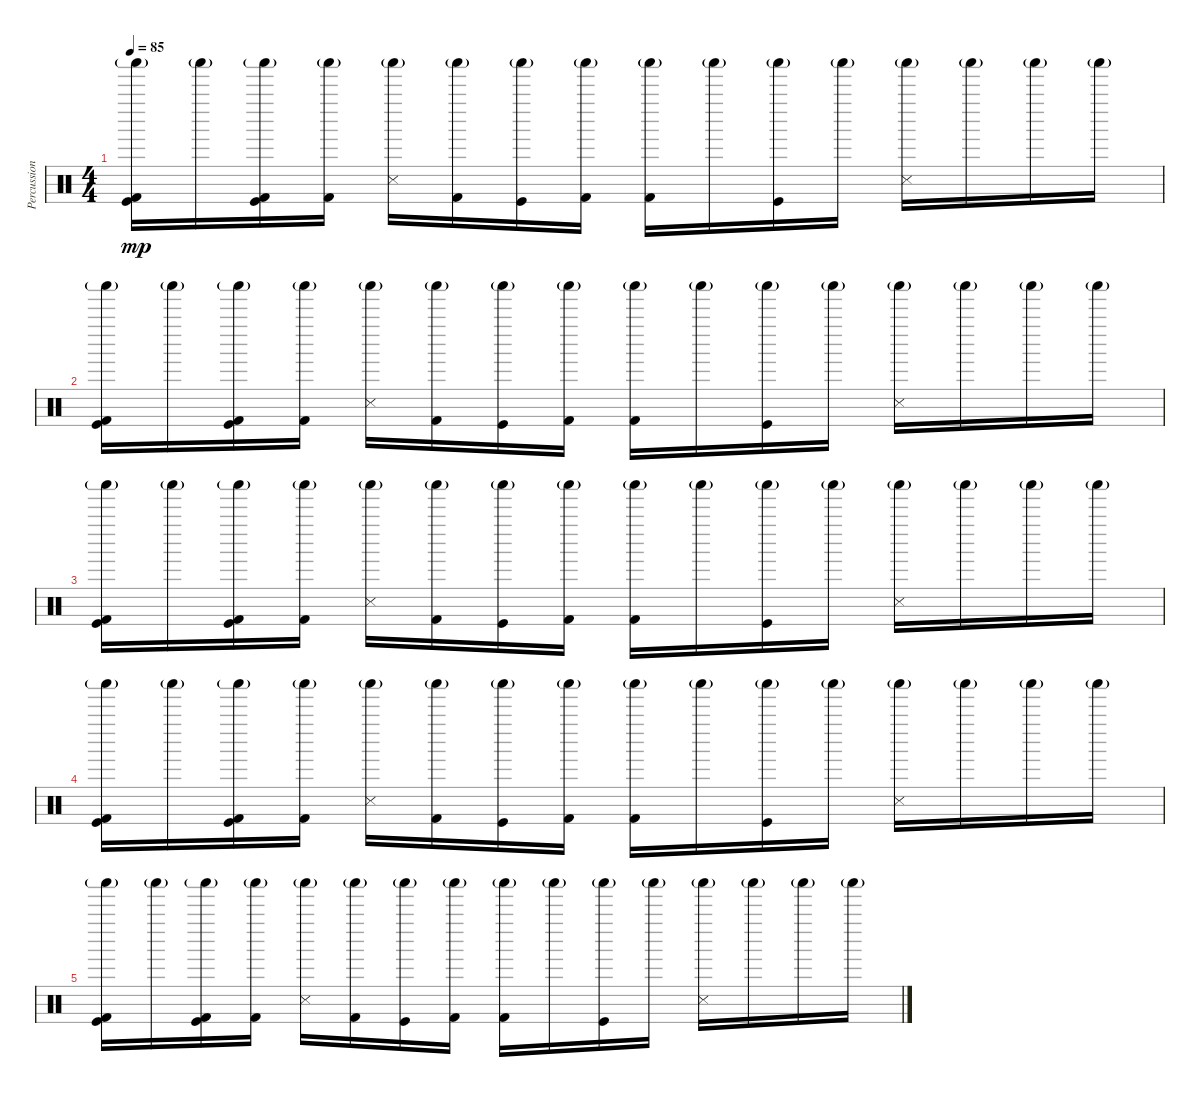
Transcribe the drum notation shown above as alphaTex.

\track ("Percussions" "Percussion") {instrument percussion}
\staff {score}
\articulation defaults
\ts (4 4)
\tempo 85
\clef neutral
\ks c
("Shaker (hit)"{g} "Kick (hit) 2" "Kick (hit)").16{dy mp} "Shaker (hit)"{g}.16 ("Shaker (hit)"{g} "Kick (hit) 2" "Kick (hit)").16 ("Shaker (hit)"{g} "Kick (hit) 2").16 ("Shaker (hit)"{g} "Snare (side stick) 3").16 ("Shaker (hit)"{g} "Kick (hit) 2").16 ("Shaker (hit)"{g} "Kick (hit)").16 ("Shaker (hit)"{g} "Kick (hit) 2").16 ("Shaker (hit)"{g} "Kick (hit) 2").16 "Shaker (hit)"{g}.16 ("Shaker (hit)"{g} "Kick (hit)").16 "Shaker (hit)"{g}.16 ("Shaker (hit)"{g} "Snare (side stick) 3").16 "Shaker (hit)"{g}.16 "Shaker (hit)"{g}.16 "Shaker (hit)"{g}.16 |
("Shaker (hit)"{g} "Kick (hit) 2" "Kick (hit)").16{volume 0} "Shaker (hit)"{g}.16 ("Shaker (hit)"{g} "Kick (hit) 2" "Kick (hit)").16 ("Shaker (hit)"{g} "Kick (hit) 2").16 ("Shaker (hit)"{g} "Snare (side stick) 3").16 ("Shaker (hit)"{g} "Kick (hit) 2").16 ("Shaker (hit)"{g} "Kick (hit)").16 ("Shaker (hit)"{g} "Kick (hit) 2").16 ("Shaker (hit)"{g} "Kick (hit) 2").16 "Shaker (hit)"{g}.16 ("Shaker (hit)"{g} "Kick (hit)").16 "Shaker (hit)"{g}.16 ("Shaker (hit)"{g} "Snare (side stick) 3").16 "Shaker (hit)"{g}.16 "Shaker (hit)"{g}.16 "Shaker (hit)"{g}.16 |
("Shaker (hit)"{g} "Kick (hit) 2" "Kick (hit)").16 "Shaker (hit)"{g}.16 ("Shaker (hit)"{g} "Kick (hit) 2" "Kick (hit)").16 ("Shaker (hit)"{g} "Kick (hit) 2").16 ("Shaker (hit)"{g} "Snare (side stick) 3").16 ("Shaker (hit)"{g} "Kick (hit) 2").16 ("Shaker (hit)"{g} "Kick (hit)").16 ("Shaker (hit)"{g} "Kick (hit) 2").16 ("Shaker (hit)"{g} "Kick (hit) 2").16 "Shaker (hit)"{g}.16 ("Shaker (hit)"{g} "Kick (hit)").16 "Shaker (hit)"{g}.16 ("Shaker (hit)"{g} "Snare (side stick) 3").16 "Shaker (hit)"{g}.16 "Shaker (hit)"{g}.16 "Shaker (hit)"{g}.16 |
("Shaker (hit)"{g} "Kick (hit) 2" "Kick (hit)").16 "Shaker (hit)"{g}.16 ("Shaker (hit)"{g} "Kick (hit) 2" "Kick (hit)").16 ("Shaker (hit)"{g} "Kick (hit) 2").16 ("Shaker (hit)"{g} "Snare (side stick) 3").16 ("Shaker (hit)"{g} "Kick (hit) 2").16 ("Shaker (hit)"{g} "Kick (hit)").16 ("Shaker (hit)"{g} "Kick (hit) 2").16 ("Shaker (hit)"{g} "Kick (hit) 2").16 "Shaker (hit)"{g}.16 ("Shaker (hit)"{g} "Kick (hit)").16 "Shaker (hit)"{g}.16 ("Shaker (hit)"{g} "Snare (side stick) 3").16 "Shaker (hit)"{g}.16 "Shaker (hit)"{g}.16 "Shaker (hit)"{g}.16 |
("Shaker (hit)"{g} "Kick (hit) 2" "Kick (hit)").16 "Shaker (hit)"{g}.16 ("Shaker (hit)"{g} "Kick (hit) 2" "Kick (hit)").16 ("Shaker (hit)"{g} "Kick (hit) 2").16 ("Shaker (hit)"{g} "Snare (side stick) 3").16 ("Shaker (hit)"{g} "Kick (hit) 2").16 ("Shaker (hit)"{g} "Kick (hit)").16 ("Shaker (hit)"{g} "Kick (hit) 2").16 ("Shaker (hit)"{g} "Kick (hit) 2").16 "Shaker (hit)"{g}.16 ("Shaker (hit)"{g} "Kick (hit)").16 "Shaker (hit)"{g}.16 ("Shaker (hit)"{g} "Snare (side stick) 3").16 "Shaker (hit)"{g}.16 "Shaker (hit)"{g}.16 "Shaker (hit)"{g}.16
